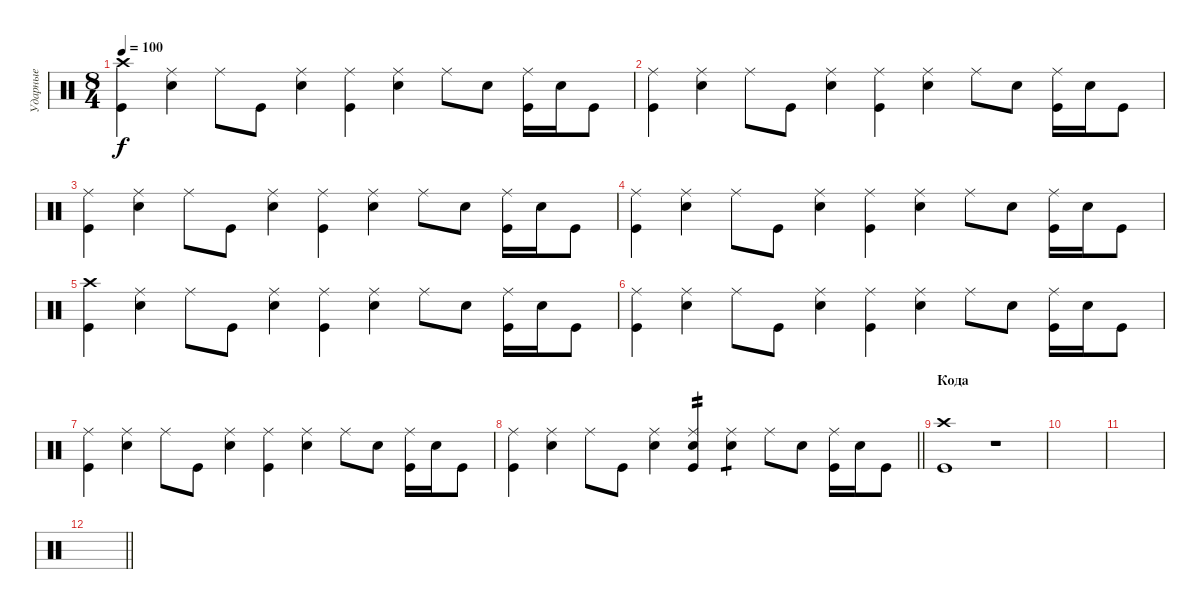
\track ("Ударные" "Ударные") {instrument percussion}
\staff {score}
\articulation defaults
\ts (8 4)
\tempo 100
\clef neutral
\ks c
("Crash high (hit)" "Kick (hit)").4{dy f} ("Ride (middle)" "Snare (hit) 2").4 "Ride (middle)".8 "Kick (hit)".8 ("Ride (middle)" "Snare (hit) 2").4 ("Ride (middle)" "Kick (hit)").4 ("Ride (middle)" "Snare (hit) 2").4 "Ride (middle)".8 "Snare (hit) 2".8 ("Ride (middle)" "Kick (hit)").16 "Snare (hit) 2".16 "Kick (hit)".8 |
("Ride (middle)" "Kick (hit)").4 ("Ride (middle)" "Snare (hit) 2").4 "Ride (middle)".8 "Kick (hit)".8 ("Ride (middle)" "Snare (hit) 2").4 ("Ride (middle)" "Kick (hit)").4 ("Ride (middle)" "Snare (hit) 2").4 "Ride (middle)".8 "Snare (hit) 2".8 ("Ride (middle)" "Kick (hit)").16 "Snare (hit) 2".16 "Kick (hit)".8 |
("Ride (middle)" "Kick (hit)").4 ("Ride (middle)" "Snare (hit) 2").4 "Ride (middle)".8 "Kick (hit)".8 ("Ride (middle)" "Snare (hit) 2").4 ("Ride (middle)" "Kick (hit)").4 ("Ride (middle)" "Snare (hit) 2").4 "Ride (middle)".8 "Snare (hit) 2".8 ("Ride (middle)" "Kick (hit)").16 "Snare (hit) 2".16 "Kick (hit)".8 |
("Ride (middle)" "Kick (hit)").4 ("Ride (middle)" "Snare (hit) 2").4 "Ride (middle)".8 "Kick (hit)".8 ("Ride (middle)" "Snare (hit) 2").4 ("Ride (middle)" "Kick (hit)").4 ("Ride (middle)" "Snare (hit) 2").4 "Ride (middle)".8 "Snare (hit) 2".8 ("Ride (middle)" "Kick (hit)").16 "Snare (hit) 2".16 "Kick (hit)".8 |
("Crash high (hit)" "Kick (hit)").4 ("Ride (middle)" "Snare (hit) 2").4 "Ride (middle)".8 "Kick (hit)".8 ("Ride (middle)" "Snare (hit) 2").4 ("Ride (middle)" "Kick (hit)").4 ("Ride (middle)" "Snare (hit) 2").4 "Ride (middle)".8 "Snare (hit) 2".8 ("Ride (middle)" "Kick (hit)").16 "Snare (hit) 2".16 "Kick (hit)".8 |
("Ride (middle)" "Kick (hit)").4 ("Ride (middle)" "Snare (hit) 2").4 "Ride (middle)".8 "Kick (hit)".8 ("Ride (middle)" "Snare (hit) 2").4 ("Ride (middle)" "Kick (hit)").4 ("Ride (middle)" "Snare (hit) 2").4 "Ride (middle)".8 "Snare (hit) 2".8 ("Ride (middle)" "Kick (hit)").16 "Snare (hit) 2".16 "Kick (hit)".8 |
("Ride (middle)" "Kick (hit)").4 ("Ride (middle)" "Snare (hit) 2").4 "Ride (middle)".8 "Kick (hit)".8 ("Ride (middle)" "Snare (hit) 2").4 ("Ride (middle)" "Kick (hit)").4 ("Ride (middle)" "Snare (hit) 2").4 "Ride (middle)".8 "Snare (hit) 2".8 ("Ride (middle)" "Kick (hit)").16 "Snare (hit) 2".16 "Kick (hit)".8 |
\barLineRight lightlight
("Ride (middle)" "Kick (hit)").4 ("Ride (middle)" "Snare (hit) 2").4 "Ride (middle)".8 "Kick (hit)".8 ("Ride (middle)" "Snare (hit) 2").4 ("Ride (middle)" "Snare (hit) 2" "Kick (hit)").4{tp 2} ("Ride (middle)" "Snare (hit) 2").4{tp 1} "Ride (middle)".8 "Snare (hit) 2".8 ("Ride (middle)" "Kick (hit)").16 "Snare (hit) 2".16 "Kick (hit)".8 |
\section ("" "Кода")
("Crash high (hit)" "Kick (hit)").1 r.1 |
|
|
\barLineRight lightlight
